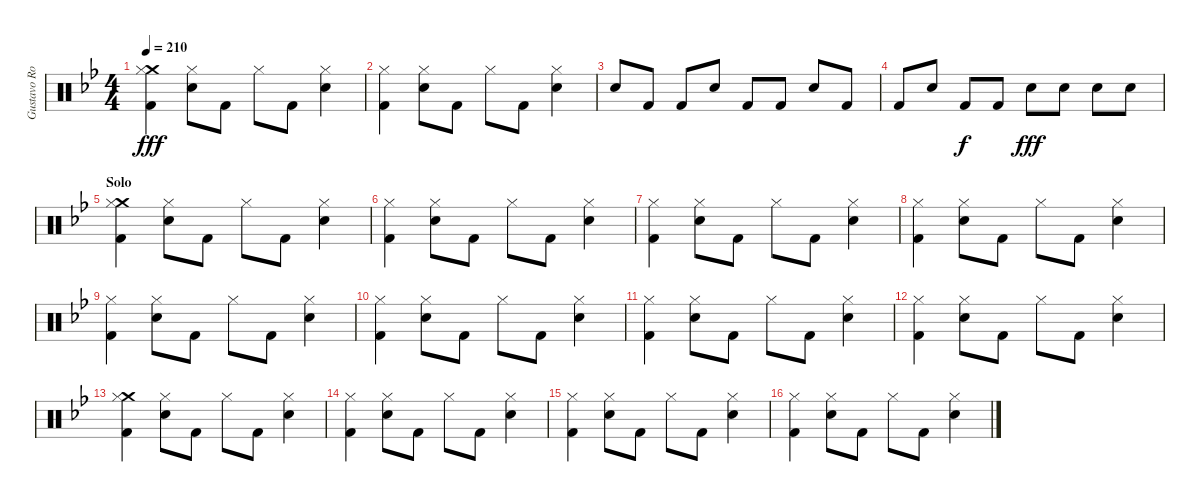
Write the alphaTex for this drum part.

\track ("Gustavo Rowek" "Gustavo Ro") {instrument percussion}
\staff {score}
\articulation defaults
\ts (4 4)
\tempo 210
\clef neutral
\ks gminor
("Crash medium (hit)" "Hi-Hat (closed)" "Kick (hit) 2").4{dy fff} ("Hi-Hat (closed)" "Snare (hit) 2").8 "Kick (hit) 2".8 "Hi-Hat (closed)".8 "Kick (hit) 2".8 ("Hi-Hat (closed)" "Snare (hit) 2").4 |
("Hi-Hat (closed)" "Kick (hit) 2").4 ("Hi-Hat (closed)" "Snare (hit) 2").8 "Kick (hit) 2".8 "Hi-Hat (closed)".8 "Kick (hit) 2".8 ("Hi-Hat (closed)" "Snare (hit) 2").4 |
"Snare (hit) 2".8 "Kick (hit) 2".8 "Kick (hit) 2".8 "Snare (hit) 2".8 "Kick (hit) 2".8 "Kick (hit) 2".8 "Snare (hit) 2".8 "Kick (hit) 2".8 |
"Kick (hit) 2".8 "Snare (hit) 2".8 "Kick (hit) 2".8{dy f} "Kick (hit) 2".8 "Snare (hit) 2".8{dy fff} "Snare (hit) 2".8 "Snare (hit) 2".8 "Snare (hit) 2".8 |
\section ("" "Solo")
("Crash medium (hit)" "Hi-Hat (closed)" "Kick (hit) 2").4 ("Hi-Hat (closed)" "Snare (hit) 2").8 "Kick (hit) 2".8 "Hi-Hat (closed)".8 "Kick (hit) 2".8 ("Hi-Hat (closed)" "Snare (hit) 2").4 |
("Hi-Hat (closed)" "Kick (hit) 2").4 ("Hi-Hat (closed)" "Snare (hit) 2").8 "Kick (hit) 2".8 "Hi-Hat (closed)".8 "Kick (hit) 2".8 ("Hi-Hat (closed)" "Snare (hit) 2").4 |
("Hi-Hat (closed)" "Kick (hit) 2").4 ("Hi-Hat (closed)" "Snare (hit) 2").8 "Kick (hit) 2".8 "Hi-Hat (closed)".8 "Kick (hit) 2".8 ("Hi-Hat (closed)" "Snare (hit) 2").4 |
("Hi-Hat (closed)" "Kick (hit) 2").4 ("Hi-Hat (closed)" "Snare (hit) 2").8 "Kick (hit) 2".8 "Hi-Hat (closed)".8 "Kick (hit) 2".8 ("Hi-Hat (closed)" "Snare (hit) 2").4 |
("Hi-Hat (closed)" "Kick (hit) 2").4 ("Hi-Hat (closed)" "Snare (hit) 2").8 "Kick (hit) 2".8 "Hi-Hat (closed)".8 "Kick (hit) 2".8 ("Hi-Hat (closed)" "Snare (hit) 2").4 |
("Hi-Hat (closed)" "Kick (hit) 2").4 ("Hi-Hat (closed)" "Snare (hit) 2").8 "Kick (hit) 2".8 "Hi-Hat (closed)".8 "Kick (hit) 2".8 ("Hi-Hat (closed)" "Snare (hit) 2").4 |
("Hi-Hat (closed)" "Kick (hit) 2").4 ("Hi-Hat (closed)" "Snare (hit) 2").8 "Kick (hit) 2".8 "Hi-Hat (closed)".8 "Kick (hit) 2".8 ("Hi-Hat (closed)" "Snare (hit) 2").4 |
("Hi-Hat (closed)" "Kick (hit) 2").4 ("Hi-Hat (closed)" "Snare (hit) 2").8 "Kick (hit) 2".8 "Hi-Hat (closed)".8 "Kick (hit) 2".8 ("Hi-Hat (closed)" "Snare (hit) 2").4 |
("Crash medium (hit)" "Hi-Hat (closed)" "Kick (hit) 2").4 ("Hi-Hat (closed)" "Snare (hit) 2").8 "Kick (hit) 2".8 "Hi-Hat (closed)".8 "Kick (hit) 2".8 ("Hi-Hat (closed)" "Snare (hit) 2").4 |
("Hi-Hat (closed)" "Kick (hit) 2").4 ("Hi-Hat (closed)" "Snare (hit) 2").8 "Kick (hit) 2".8 "Hi-Hat (closed)".8 "Kick (hit) 2".8 ("Hi-Hat (closed)" "Snare (hit) 2").4 |
("Hi-Hat (closed)" "Kick (hit) 2").4 ("Hi-Hat (closed)" "Snare (hit) 2").8 "Kick (hit) 2".8 "Hi-Hat (closed)".8 "Kick (hit) 2".8 ("Hi-Hat (closed)" "Snare (hit) 2").4 |
("Hi-Hat (closed)" "Kick (hit) 2").4 ("Hi-Hat (closed)" "Snare (hit) 2").8 "Kick (hit) 2".8 "Hi-Hat (closed)".8 "Kick (hit) 2".8 ("Hi-Hat (closed)" "Snare (hit) 2").4
